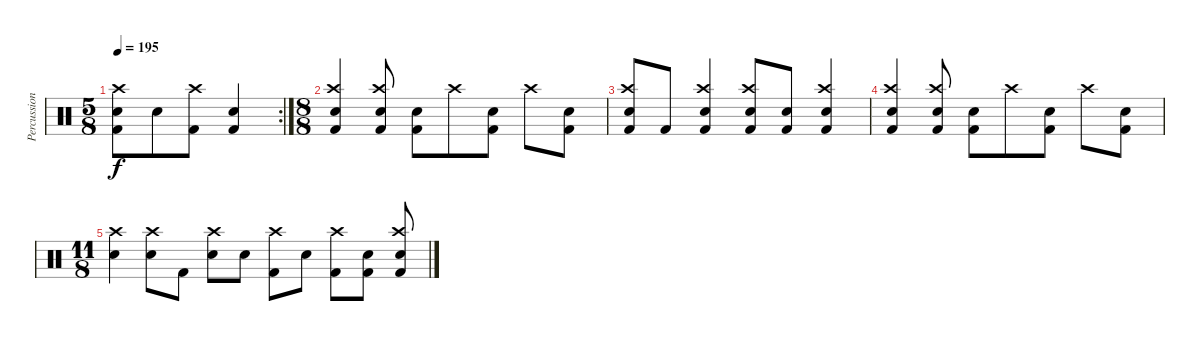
\track ("Percussion" "Percussion") {instrument percussion}
\staff {score}
\articulation defaults
\rc 2
\ts (5 8)
\tempo 195
\clef neutral
\ks c
("Kick (hit) 2" "Crash high (hit)" "Electric Snare (hit)").8{dy f} "Electric Snare (hit)".8 ("Kick (hit) 2" "Crash high (hit)").8 ("Kick (hit) 2" "Electric Snare (hit)").4 |
\ts (8 8)
("Kick (hit) 2" "Crash high (hit)" "Electric Snare (hit)").4 ("Kick (hit) 2" "Crash high (hit)" "Electric Snare (hit)").8 ("Kick (hit) 2" "Electric Snare (hit)").8 "Crash high (hit)".8 ("Kick (hit) 2" "Electric Snare (hit)").8 "Crash high (hit)".8 ("Kick (hit) 2" "Electric Snare (hit)").8 |
("Kick (hit) 2" "Crash high (hit)" "Electric Snare (hit)").8 "Kick (hit) 2".8 ("Kick (hit) 2" "Crash high (hit)" "Electric Snare (hit)").4 ("Kick (hit) 2" "Crash high (hit)" "Electric Snare (hit)").8 ("Kick (hit) 2" "Electric Snare (hit)").8 ("Kick (hit) 2" "Crash high (hit)" "Electric Snare (hit)").4 |
("Kick (hit) 2" "Crash high (hit)" "Electric Snare (hit)").4 ("Kick (hit) 2" "Crash high (hit)" "Electric Snare (hit)").8 ("Kick (hit) 2" "Electric Snare (hit)").8 "Crash high (hit)".8 ("Kick (hit) 2" "Electric Snare (hit)").8 "Crash high (hit)".8 ("Kick (hit) 2" "Electric Snare (hit)").8 |
\ts (11 8)
("Crash high (hit)" "Electric Snare (hit)").4 ("Crash high (hit)" "Electric Snare (hit)").8 "Kick (hit) 2".8 ("Crash high (hit)" "Electric Snare (hit)").8 "Electric Snare (hit)".8 ("Kick (hit) 2" "Crash high (hit)").8 "Electric Snare (hit)".8 ("Kick (hit) 2" "Crash high (hit)").8 ("Kick (hit) 2" "Electric Snare (hit)").8 ("Kick (hit) 2" "Crash high (hit)" "Electric Snare (hit)").8
